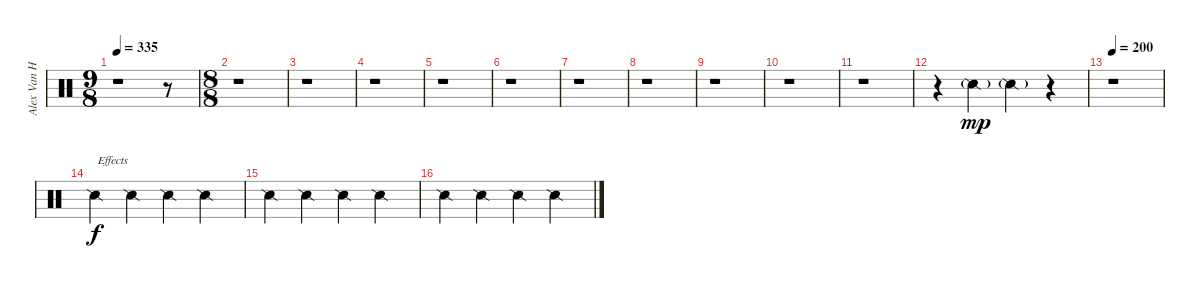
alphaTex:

\track ("Alex Van Halen" "Alex Van H") {instrument percussion}
\staff {score}
\articulation defaults
\ts (9 8)
\tempo 335
\clef neutral
\ks c
r.1{dy f} r.8 |
\ts (8 8)
r.1 |
r.1 |
r.1 |
r.1 |
r.1 |
r.1 |
r.1 |
r.1 |
r.1 |
r.1 |
r.4 "Snare (side stick) 2"{g}.4{dy mp} "Snare (side stick) 2"{g}.4 r.4 |
\tempo 200
r.1 |
"Snare (side stick) 2".4{txt "Effects" dy f volume 11} "Snare (side stick) 2".4 "Snare (side stick) 2".4 "Snare (side stick) 2".4 |
"Snare (side stick) 2".4 "Snare (side stick) 2".4 "Snare (side stick) 2".4 "Snare (side stick) 2".4 |
"Snare (side stick) 2".4 "Snare (side stick) 2".4 "Snare (side stick) 2".4 "Snare (side stick) 2".4
